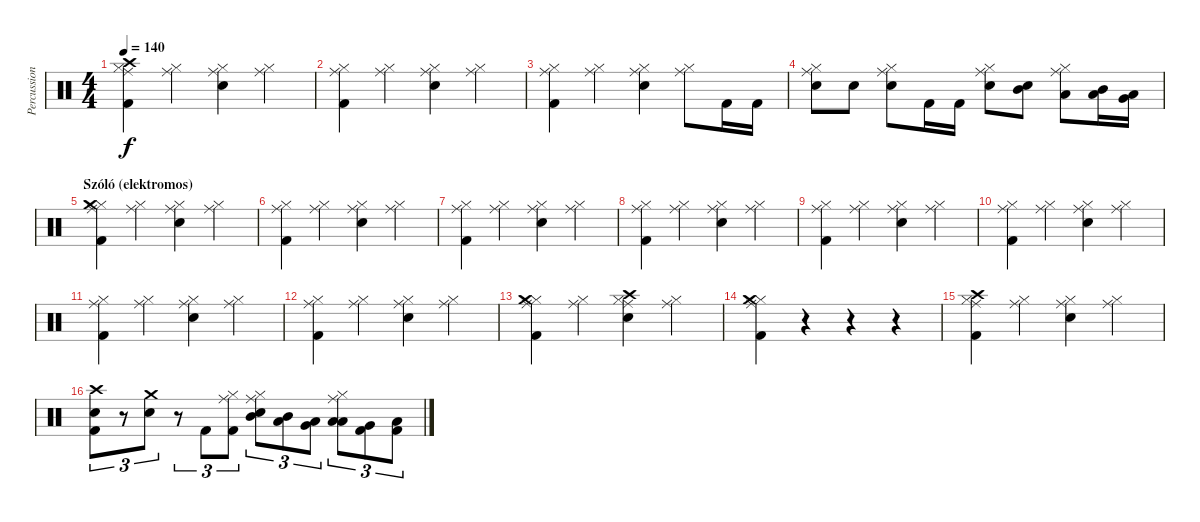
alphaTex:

\track ("Percussion" "Percussion") {instrument percussion}
\staff {score}
\articulation defaults
\ts (4 4)
\tempo 140
\clef neutral
\ks c
("Hi-Hat (closed)" "Crash high (hit)" "Kick (hit) 2" "Ride (middle)").4{dy f} ("Hi-Hat (closed)" "Ride (middle)").4 ("Hi-Hat (closed)" "Electric Snare (hit)" "Ride (middle)").4 ("Hi-Hat (closed)" "Ride (middle)").4 |
("Hi-Hat (closed)" "Kick (hit) 2" "Ride (middle)").4 ("Hi-Hat (closed)" "Ride (middle)").4 ("Hi-Hat (closed)" "Electric Snare (hit)" "Ride (middle)").4 ("Hi-Hat (closed)" "Ride (middle)").4 |
("Hi-Hat (closed)" "Kick (hit) 2" "Ride (middle)").4 ("Hi-Hat (closed)" "Ride (middle)").4 ("Hi-Hat (closed)" "Electric Snare (hit)" "Ride (middle)").4 ("Hi-Hat (closed)" "Ride (middle)").8 "Kick (hit) 2".16 "Kick (hit) 2".16 |
("Hi-Hat (closed)" "Electric Snare (hit)" "Ride (middle)").8 "Electric Snare (hit)".8 ("Hi-Hat (closed)" "Electric Snare (hit)" "Ride (middle)").8 "Kick (hit) 2".16 "Kick (hit) 2".16 ("Hi-Hat (closed)" "Electric Snare (hit)" "Ride (middle)").8 ("Mid Tom (hit)" "Electric Snare (hit)").8 ("Hi-Hat (closed)" "Low Tom (hit)" "Ride (middle)").8 ("Mid Tom (hit)" "Low Tom (hit)").16 ("Low Tom (hit)" "Very Low Tom (hit)").16 |
\section ("" "Szóló (elektromos)")
("Hi-Hat (closed)" "Crash medium (hit)" "Kick (hit) 2" "Ride (middle)").4 ("Hi-Hat (closed)" "Ride (middle)").4 ("Hi-Hat (closed)" "Electric Snare (hit)" "Ride (middle)").4 ("Hi-Hat (closed)" "Ride (middle)").4 |
("Hi-Hat (closed)" "Kick (hit) 2" "Ride (middle)").4 ("Hi-Hat (closed)" "Ride (middle)").4 ("Hi-Hat (closed)" "Electric Snare (hit)" "Ride (middle)").4 ("Hi-Hat (closed)" "Ride (middle)").4 |
("Hi-Hat (closed)" "Kick (hit) 2" "Ride (middle)").4 ("Hi-Hat (closed)" "Ride (middle)").4 ("Hi-Hat (closed)" "Electric Snare (hit)" "Ride (middle)").4 ("Hi-Hat (closed)" "Ride (middle)").4 |
("Hi-Hat (closed)" "Kick (hit) 2" "Ride (middle)").4 ("Hi-Hat (closed)" "Ride (middle)").4 ("Hi-Hat (closed)" "Electric Snare (hit)" "Ride (middle)").4 ("Hi-Hat (closed)" "Ride (middle)").4 |
("Hi-Hat (closed)" "Kick (hit) 2" "Ride (middle)").4 ("Hi-Hat (closed)" "Ride (middle)").4 ("Hi-Hat (closed)" "Electric Snare (hit)" "Ride (middle)").4 ("Hi-Hat (closed)" "Ride (middle)").4 |
("Hi-Hat (closed)" "Kick (hit) 2" "Ride (middle)").4 ("Hi-Hat (closed)" "Ride (middle)").4 ("Hi-Hat (closed)" "Electric Snare (hit)" "Ride (middle)").4 ("Hi-Hat (closed)" "Ride (middle)").4 |
("Hi-Hat (closed)" "Kick (hit) 2" "Ride (middle)").4 ("Hi-Hat (closed)" "Ride (middle)").4 ("Hi-Hat (closed)" "Electric Snare (hit)" "Ride (middle)").4 ("Hi-Hat (closed)" "Ride (middle)").4 |
("Hi-Hat (closed)" "Kick (hit) 2" "Ride (middle)").4 ("Hi-Hat (closed)" "Ride (middle)").4 ("Hi-Hat (closed)" "Electric Snare (hit)" "Ride (middle)").4 ("Hi-Hat (closed)" "Ride (middle)").4 |
("Hi-Hat (closed)" "Crash medium (hit)" "Kick (hit) 2" "Ride (middle)").4 ("Hi-Hat (closed)" "Ride (middle)").4 ("Hi-Hat (closed)" "Crash high (hit)" "Electric Snare (hit)" "Ride (middle)").4 ("Hi-Hat (closed)" "Ride (middle)").4 |
("Hi-Hat (closed)" "Crash medium (hit)" "Kick (hit) 2" "Ride (middle)").4 r.4 r.4 r.4 |
("Hi-Hat (closed)" "Crash high (hit)" "Kick (hit) 2" "Ride (middle)").4 ("Hi-Hat (closed)" "Ride (middle)").4 ("Hi-Hat (closed)" "Electric Snare (hit)" "Ride (middle)").4 ("Hi-Hat (closed)" "Ride (middle)").4 |
("Crash high (hit)" "Kick (hit) 2" "Electric Snare (hit)").8{tu (3 2)} r.8{tu (3 2)} ("Crash medium (hit)" "Electric Snare (hit)").8{tu (3 2)} r.8{tu (3 2)} "Kick (hit) 2".8{tu (3 2)} ("Hi-Hat (closed)" "Kick (hit) 2" "Ride (middle)").8{tu (3 2)} ("Hi-Hat (closed)" "Mid Tom (hit)" "Electric Snare (hit)" "Ride (middle)").8{tu (3 2)} ("Low Tom (hit)" "Mid Tom (hit)").8{tu (3 2)} ("Very Low Tom (hit)" "Low Tom (hit)").8{tu (3 2)} ("Hi-Hat (closed)" "Low Floor Tom (hit)" "Low Tom (hit)" "Ride (middle)").8{tu (3 2)} ("Kick (hit) 2" "Very Low Tom (hit)").8{tu (3 2)} ("Kick (hit) 2" "Low Floor Tom (hit)").8{tu (3 2)}
